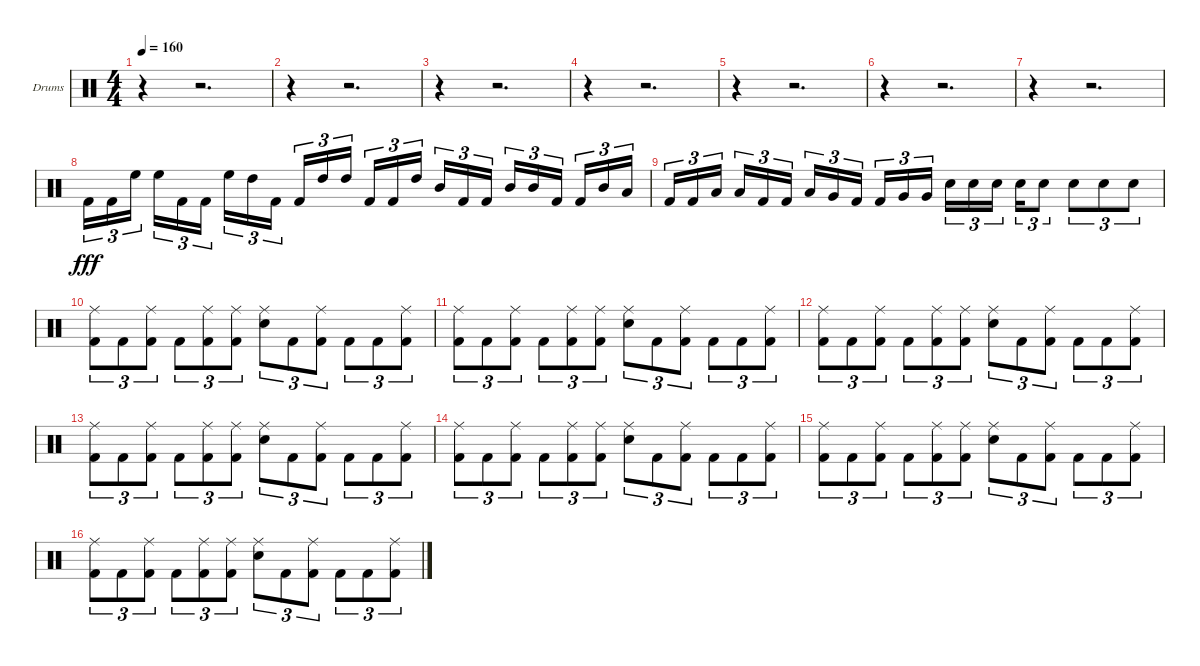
\bracketExtendMode groupsimilarinstruments
\firstSystemTrackNameOrientation horizontal
\otherSystemsTrackNameOrientation horizontal
\track ("Gigante" "Drums") {instrument percussion}
\staff {score}
\articulation defaults
\ts (4 4)
\tempo 160
\clef neutral
\ks c
r.4{dy fff} r.2{d} |
r.4 r.2{d} |
r.4 r.2{d} |
r.4 r.2{d} |
r.4 r.2{d} |
r.4 r.2{d} |
r.4 r.2{d} |
\beaming (8 2 2 2 2)
"Kick (hit) 2".16{tu (3 2)} "Kick (hit) 2".16{tu (3 2)} "High Floor Tom (hit)".16{tu (3 2)} "High Floor Tom (hit)".16{tu (3 2)} "Kick (hit) 2".16{tu (3 2)} "Kick (hit) 2".16{tu (3 2)} "High Floor Tom (hit)".16{tu (3 2)} "High Tom (hit)".16{tu (3 2)} "Kick (hit) 2".16{tu (3 2)} "Kick (hit) 2".16{tu (3 2)} "High Tom (hit)".16{tu (3 2)} "High Tom (hit)".16{tu (3 2)} "Kick (hit) 2".16{tu (3 2)} "Kick (hit) 2".16{tu (3 2)} "High Tom (hit)".16{tu (3 2)} "Mid Tom (hit)".16{tu (3 2)} "Kick (hit) 2".16{tu (3 2)} "Kick (hit) 2".16{tu (3 2)} "Mid Tom (hit)".16{tu (3 2)} "Mid Tom (hit)".16{tu (3 2)} "Kick (hit) 2".16{tu (3 2)} "Kick (hit) 2".16{tu (3 2)} "Mid Tom (hit)".16{tu (3 2)} "Low Tom (hit)".16{tu (3 2)} |
"Kick (hit) 2".16{tu (3 2)} "Kick (hit) 2".16{tu (3 2)} "Low Tom (hit)".16{tu (3 2)} "Low Tom (hit)".16{tu (3 2)} "Kick (hit) 2".16{tu (3 2)} "Kick (hit) 2".16{tu (3 2)} "Low Tom (hit)".16{tu (3 2)} "Very Low Tom (hit)".16{tu (3 2)} "Kick (hit) 2".16{tu (3 2)} "Kick (hit) 2".16{tu (3 2)} "Very Low Tom (hit)".16{tu (3 2)} "Very Low Tom (hit)".16{tu (3 2)} "Snare (hit) 2".16{tu (3 2)} "Snare (hit) 2".16{tu (3 2)} "Snare (hit) 2".16{tu (3 2)} "Snare (hit) 2".16{tu (3 2)} "Snare (hit) 2".8{tu (3 2)} "Snare (hit) 2".8{tu (3 2)} "Snare (hit) 2".8{tu (3 2)} "Snare (hit) 2".8{tu (3 2)} |
("Ride (middle)" "Kick (hit) 2").8{tu (3 2)} "Kick (hit) 2".8{tu (3 2)} ("Ride (middle)" "Kick (hit) 2").8{tu (3 2)} "Kick (hit) 2".8{tu (3 2)} ("Ride (middle)" "Kick (hit) 2").8{tu (3 2)} ("Ride (middle)" "Kick (hit) 2").8{tu (3 2)} ("Ride (middle)" "Snare (hit) 2").8{tu (3 2)} "Kick (hit) 2".8{tu (3 2)} ("Ride (middle)" "Kick (hit) 2").8{tu (3 2)} "Kick (hit) 2".8{tu (3 2)} "Kick (hit) 2".8{tu (3 2)} ("Ride (middle)" "Kick (hit) 2").8{tu (3 2)} |
("Ride (middle)" "Kick (hit) 2").8{tu (3 2)} "Kick (hit) 2".8{tu (3 2)} ("Ride (middle)" "Kick (hit) 2").8{tu (3 2)} "Kick (hit) 2".8{tu (3 2)} ("Ride (middle)" "Kick (hit) 2").8{tu (3 2)} ("Ride (middle)" "Kick (hit) 2").8{tu (3 2)} ("Ride (middle)" "Snare (hit) 2").8{tu (3 2)} "Kick (hit) 2".8{tu (3 2)} ("Ride (middle)" "Kick (hit) 2").8{tu (3 2)} "Kick (hit) 2".8{tu (3 2)} "Kick (hit) 2".8{tu (3 2)} ("Ride (middle)" "Kick (hit) 2").8{tu (3 2)} |
("Ride (middle)" "Kick (hit) 2").8{tu (3 2)} "Kick (hit) 2".8{tu (3 2)} ("Ride (middle)" "Kick (hit) 2").8{tu (3 2)} "Kick (hit) 2".8{tu (3 2)} ("Ride (middle)" "Kick (hit) 2").8{tu (3 2)} ("Ride (middle)" "Kick (hit) 2").8{tu (3 2)} ("Ride (middle)" "Snare (hit) 2").8{tu (3 2)} "Kick (hit) 2".8{tu (3 2)} ("Ride (middle)" "Kick (hit) 2").8{tu (3 2)} "Kick (hit) 2".8{tu (3 2)} "Kick (hit) 2".8{tu (3 2)} ("Ride (middle)" "Kick (hit) 2").8{tu (3 2)} |
("Ride (middle)" "Kick (hit) 2").8{tu (3 2)} "Kick (hit) 2".8{tu (3 2)} ("Ride (middle)" "Kick (hit) 2").8{tu (3 2)} "Kick (hit) 2".8{tu (3 2)} ("Ride (middle)" "Kick (hit) 2").8{tu (3 2)} ("Ride (middle)" "Kick (hit) 2").8{tu (3 2)} ("Ride (middle)" "Snare (hit) 2").8{tu (3 2)} "Kick (hit) 2".8{tu (3 2)} ("Ride (middle)" "Kick (hit) 2").8{tu (3 2)} "Kick (hit) 2".8{tu (3 2)} "Kick (hit) 2".8{tu (3 2)} ("Ride (middle)" "Kick (hit) 2").8{tu (3 2)} |
("Ride (middle)" "Kick (hit) 2").8{tu (3 2)} "Kick (hit) 2".8{tu (3 2)} ("Ride (middle)" "Kick (hit) 2").8{tu (3 2)} "Kick (hit) 2".8{tu (3 2)} ("Ride (middle)" "Kick (hit) 2").8{tu (3 2)} ("Ride (middle)" "Kick (hit) 2").8{tu (3 2)} ("Ride (middle)" "Snare (hit) 2").8{tu (3 2)} "Kick (hit) 2".8{tu (3 2)} ("Ride (middle)" "Kick (hit) 2").8{tu (3 2)} "Kick (hit) 2".8{tu (3 2)} "Kick (hit) 2".8{tu (3 2)} ("Ride (middle)" "Kick (hit) 2").8{tu (3 2)} |
("Ride (middle)" "Kick (hit) 2").8{tu (3 2)} "Kick (hit) 2".8{tu (3 2)} ("Ride (middle)" "Kick (hit) 2").8{tu (3 2)} "Kick (hit) 2".8{tu (3 2)} ("Ride (middle)" "Kick (hit) 2").8{tu (3 2)} ("Ride (middle)" "Kick (hit) 2").8{tu (3 2)} ("Ride (middle)" "Snare (hit) 2").8{tu (3 2)} "Kick (hit) 2".8{tu (3 2)} ("Ride (middle)" "Kick (hit) 2").8{tu (3 2)} "Kick (hit) 2".8{tu (3 2)} "Kick (hit) 2".8{tu (3 2)} ("Ride (middle)" "Kick (hit) 2").8{tu (3 2)} |
("Ride (middle)" "Kick (hit) 2").8{tu (3 2)} "Kick (hit) 2".8{tu (3 2)} ("Ride (middle)" "Kick (hit) 2").8{tu (3 2)} "Kick (hit) 2".8{tu (3 2)} ("Ride (middle)" "Kick (hit) 2").8{tu (3 2)} ("Ride (middle)" "Kick (hit) 2").8{tu (3 2)} ("Ride (middle)" "Snare (hit) 2").8{tu (3 2)} "Kick (hit) 2".8{tu (3 2)} ("Ride (middle)" "Kick (hit) 2").8{tu (3 2)} "Kick (hit) 2".8{tu (3 2)} "Kick (hit) 2".8{tu (3 2)} ("Ride (middle)" "Kick (hit) 2").8{tu (3 2)}
